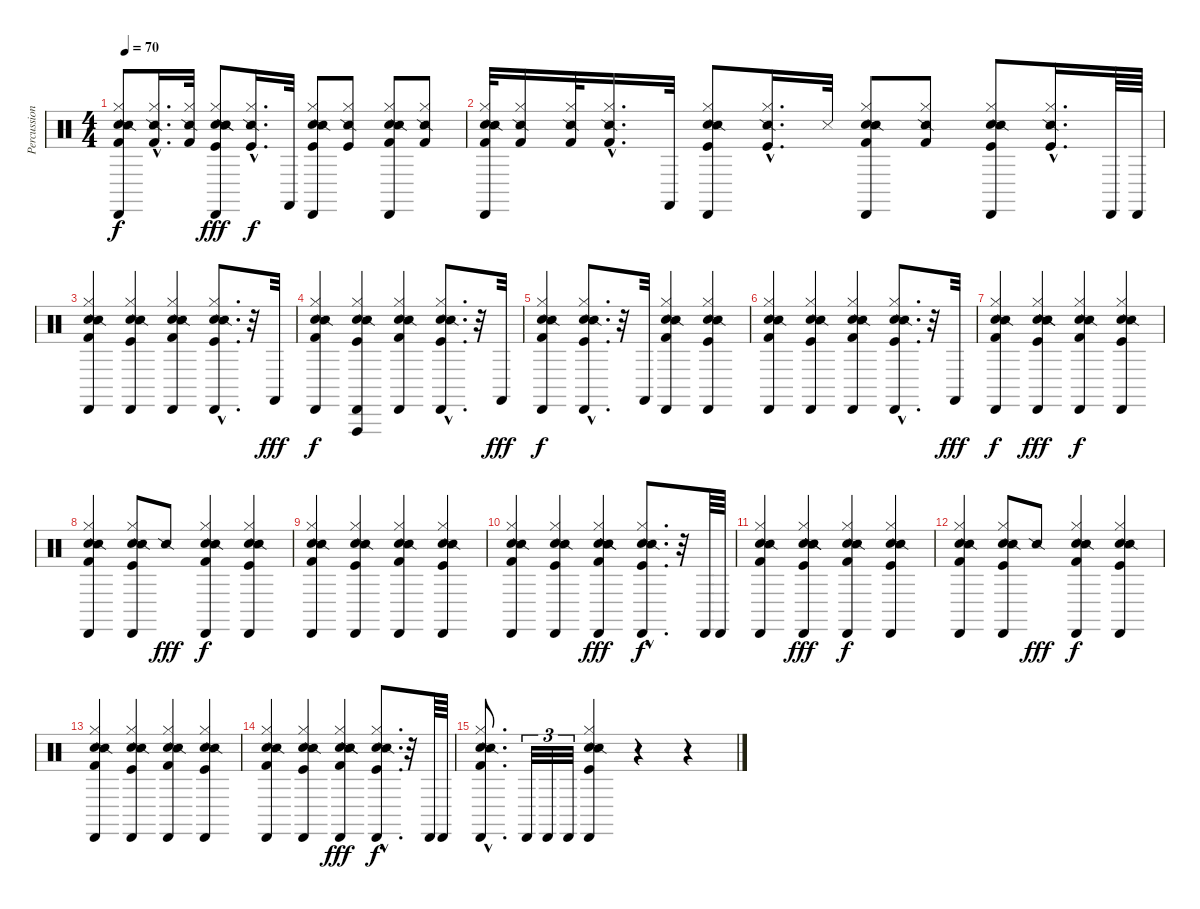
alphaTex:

\track ("Percussion" "Percussion") {instrument percussion}
\staff {score}
\articulation defaults
\ts (4 4)
\tempo 70
\clef neutral
\ks c
("Cabasa (hit)" "Electric Snare (hit)" "Snare (side stick) 2" "Hi-Hat (closed)" "Kick (hit) 2").8{dy f} ("Snare (side stick) 2"{hac} "Hi-Hat (closed)"{hac} "Kick (hit) 2"{hac}).16{d} ("Snare (side stick) 2" "Hi-Hat (closed)" "Kick (hit) 2").32 ("Cabasa (hit)" "Electric Snare (hit)" "Snare (side stick) 2" "Hi-Hat (closed)" "Kick (hit)" "Snare (side stick) 2").8{dy fff} ("Snare (side stick) 2"{hac} "Hi-Hat (closed)"{hac} "Kick (hit)"{hac}).16{d dy f} "Castanets (hit)".32 ("Cabasa (hit)" "Electric Snare (hit)" "Snare (side stick) 2" "Hi-Hat (closed)" "Kick (hit)").8 ("Snare (side stick) 2" "Hi-Hat (closed)" "Kick (hit)").8 ("Cabasa (hit)" "Electric Snare (hit)" "Snare (side stick) 2" "Hi-Hat (closed)" "Kick (hit) 2").8 ("Snare (side stick) 2" "Hi-Hat (closed)" "Kick (hit) 2").8 |
("Cabasa (hit)" "Electric Snare (hit)" "Snare (side stick) 2" "Hi-Hat (closed)" "Kick (hit) 2").32 ("Snare (side stick) 2" "Hi-Hat (closed)" "Kick (hit) 2").16 ("Snare (side stick) 2" "Hi-Hat (closed)" "Kick (hit) 2").32 ("Snare (side stick) 2"{hac} "Hi-Hat (closed)"{hac} "Kick (hit) 2"{hac}).16{d} "Castanets (hit)".32 ("Cabasa (hit)" "Electric Snare (hit)" "Snare (side stick) 2" "Hi-Hat (closed)" "Kick (hit)").8 ("Snare (side stick) 2"{hac} "Hi-Hat (closed)"{hac} "Kick (hit)"{hac}).16{d} "Metronome (hit)".32 ("Cabasa (hit)" "Electric Snare (hit)" "Snare (side stick) 2" "Hi-Hat (closed)" "Kick (hit) 2").8 ("Snare (side stick) 2" "Hi-Hat (closed)" "Kick (hit) 2").8 ("Cabasa (hit)" "Electric Snare (hit)" "Snare (side stick) 2" "Hi-Hat (closed)" "Kick (hit)").8 ("Snare (side stick) 2"{hac} "Hi-Hat (closed)"{hac} "Kick (hit)"{hac}).16{d} "Cabasa (hit)".64 "Cabasa (hit)".64 |
("Cabasa (hit)" "Electric Snare (hit)" "Snare (side stick) 2" "Hi-Hat (closed)" "Kick (hit) 2").4 ("Cabasa (hit)" "Snare (hit) 2" "Snare (side stick) 2" "Hi-Hat (closed)" "Kick (hit)").4 ("Cabasa (hit)" "Electric Snare (hit)" "Snare (side stick) 2" "Hi-Hat (closed)" "Kick (hit) 2").4 ("Cabasa (hit)"{hac} "Snare (hit) 2"{hac} "Snare (side stick) 2"{hac} "Hi-Hat (closed)"{hac} "Kick (hit)"{hac}).8{d} r.32 "Castanets (hit)".32{dy fff} |
("Cabasa (hit)" "Electric Snare (hit)" "Snare (side stick) 2" "Hi-Hat (closed)" "Kick (hit) 2").4{dy f} ("Cabasa (hit)" "Snare (hit) 2" "Snare (side stick) 2" "Hi-Hat (closed)" "Kick (hit)" "Vibraslap (hit)").4 ("Cabasa (hit)" "Electric Snare (hit)" "Snare (side stick) 2" "Hi-Hat (closed)" "Kick (hit) 2").4 ("Cabasa (hit)"{hac} "Snare (hit) 2"{hac} "Snare (side stick) 2"{hac} "Hi-Hat (closed)"{hac} "Kick (hit)"{hac}).8{d} r.32 "Castanets (hit)".32{dy fff} |
("Cabasa (hit)" "Electric Snare (hit)" "Snare (side stick) 2" "Hi-Hat (closed)" "Kick (hit) 2").4{dy f} ("Cabasa (hit)"{hac} "Snare (hit) 2"{hac} "Snare (side stick) 2"{hac} "Hi-Hat (closed)"{hac} "Kick (hit)"{hac}).8{d} r.32 "Castanets (hit)".32 ("Cabasa (hit)" "Electric Snare (hit)" "Snare (side stick) 2" "Hi-Hat (closed)" "Kick (hit) 2").4 ("Cabasa (hit)" "Snare (hit) 2" "Snare (side stick) 2" "Hi-Hat (closed)" "Kick (hit)").4 |
("Cabasa (hit)" "Electric Snare (hit)" "Snare (side stick) 2" "Hi-Hat (closed)" "Kick (hit) 2").4 ("Cabasa (hit)" "Snare (hit) 2" "Snare (side stick) 2" "Hi-Hat (closed)" "Kick (hit)").4 ("Cabasa (hit)" "Electric Snare (hit)" "Snare (side stick) 2" "Hi-Hat (closed)" "Kick (hit) 2").4 ("Cabasa (hit)"{hac} "Snare (hit) 2"{hac} "Snare (side stick) 2"{hac} "Hi-Hat (closed)"{hac} "Kick (hit)"{hac}).8{d} r.32 "Castanets (hit)".32{dy fff} |
("Cabasa (hit)" "Electric Snare (hit)" "Snare (side stick) 2" "Hi-Hat (closed)" "Kick (hit) 2").4{dy f} ("Cabasa (hit)" "Snare (hit) 2" "Snare (side stick) 2" "Hi-Hat (closed)" "Kick (hit)" "Snare (side stick) 2").4{dy fff} ("Cabasa (hit)" "Electric Snare (hit)" "Snare (side stick) 2" "Hi-Hat (closed)" "Kick (hit) 2").4{dy f} ("Cabasa (hit)" "Snare (hit) 2" "Snare (side stick) 2" "Hi-Hat (closed)" "Kick (hit)").4 |
("Cabasa (hit)" "Electric Snare (hit)" "Snare (side stick) 2" "Hi-Hat (closed)" "Kick (hit) 2").4 ("Cabasa (hit)" "Snare (hit) 2" "Snare (side stick) 2" "Hi-Hat (closed)" "Kick (hit)").8 "Snare (side stick) 2".8{dy fff} ("Cabasa (hit)" "Electric Snare (hit)" "Snare (side stick) 2" "Hi-Hat (closed)" "Kick (hit) 2").4{dy f} ("Cabasa (hit)" "Snare (hit) 2" "Snare (side stick) 2" "Hi-Hat (closed)" "Kick (hit)").4 |
("Cabasa (hit)" "Electric Snare (hit)" "Snare (side stick) 2" "Hi-Hat (closed)" "Kick (hit) 2").4 ("Cabasa (hit)" "Snare (hit) 2" "Snare (side stick) 2" "Hi-Hat (closed)" "Kick (hit)").4 ("Cabasa (hit)" "Electric Snare (hit)" "Snare (side stick) 2" "Hi-Hat (closed)" "Kick (hit) 2").4 ("Cabasa (hit)" "Snare (hit) 2" "Snare (side stick) 2" "Hi-Hat (closed)" "Kick (hit)").4 |
("Cabasa (hit)" "Electric Snare (hit)" "Snare (side stick) 2" "Hi-Hat (closed)" "Kick (hit) 2").4 ("Cabasa (hit)" "Snare (hit) 2" "Snare (side stick) 2" "Hi-Hat (closed)" "Kick (hit)").4 ("Cabasa (hit)" "Electric Snare (hit)" "Snare (side stick) 2" "Hi-Hat (closed)" "Kick (hit) 2" "Snare (side stick) 2").4{dy fff} ("Cabasa (hit)"{hac} "Snare (hit) 2"{hac} "Snare (side stick) 2"{hac} "Hi-Hat (closed)"{hac} "Kick (hit)"{hac}).8{d dy f} r.32 "Cabasa (hit)".64 "Cabasa (hit)".64 |
("Cabasa (hit)" "Electric Snare (hit)" "Snare (side stick) 2" "Hi-Hat (closed)" "Kick (hit) 2").4 ("Cabasa (hit)" "Snare (hit) 2" "Snare (side stick) 2" "Hi-Hat (closed)" "Kick (hit)" "Snare (side stick) 2").4{dy fff} ("Cabasa (hit)" "Electric Snare (hit)" "Snare (side stick) 2" "Hi-Hat (closed)" "Kick (hit) 2").4{dy f} ("Cabasa (hit)" "Snare (hit) 2" "Snare (side stick) 2" "Hi-Hat (closed)" "Kick (hit)").4 |
("Cabasa (hit)" "Electric Snare (hit)" "Snare (side stick) 2" "Hi-Hat (closed)" "Kick (hit) 2").4 ("Cabasa (hit)" "Snare (hit) 2" "Snare (side stick) 2" "Hi-Hat (closed)" "Kick (hit)").8 "Snare (side stick) 2".8{dy fff} ("Cabasa (hit)" "Electric Snare (hit)" "Snare (side stick) 2" "Hi-Hat (closed)" "Kick (hit) 2").4{dy f} ("Cabasa (hit)" "Snare (hit) 2" "Snare (side stick) 2" "Hi-Hat (closed)" "Kick (hit)").4 |
("Cabasa (hit)" "Electric Snare (hit)" "Snare (side stick) 2" "Hi-Hat (closed)" "Kick (hit) 2").4 ("Cabasa (hit)" "Snare (hit) 2" "Snare (side stick) 2" "Hi-Hat (closed)" "Kick (hit)").4 ("Cabasa (hit)" "Electric Snare (hit)" "Snare (side stick) 2" "Hi-Hat (closed)" "Kick (hit) 2").4 ("Cabasa (hit)" "Snare (hit) 2" "Snare (side stick) 2" "Hi-Hat (closed)" "Kick (hit)").4 |
("Cabasa (hit)" "Electric Snare (hit)" "Snare (side stick) 2" "Hi-Hat (closed)" "Kick (hit) 2").4 ("Cabasa (hit)" "Snare (hit) 2" "Snare (side stick) 2" "Hi-Hat (closed)" "Kick (hit)").4 ("Cabasa (hit)" "Electric Snare (hit)" "Snare (side stick) 2" "Hi-Hat (closed)" "Kick (hit) 2" "Snare (side stick) 2").4{dy fff} ("Cabasa (hit)"{hac} "Snare (hit) 2"{hac} "Snare (side stick) 2"{hac} "Hi-Hat (closed)"{hac} "Kick (hit)"{hac}).8{d dy f} r.32 "Cabasa (hit)".64 "Cabasa (hit)".64 |
("Cabasa (hit)"{hac} "Electric Snare (hit)"{hac} "Snare (side stick) 2"{hac} "Hi-Hat (closed)"{hac} "Kick (hit) 2"{hac}).8{d} "Cabasa (hit)".32{tu (3 2)} "Cabasa (hit)".32{tu (3 2)} "Cabasa (hit)".32{tu (3 2)} ("Cabasa (hit)" "Snare (hit) 2" "Snare (side stick) 2" "Hi-Hat (closed)" "Kick (hit)").4 r.4 r.4
